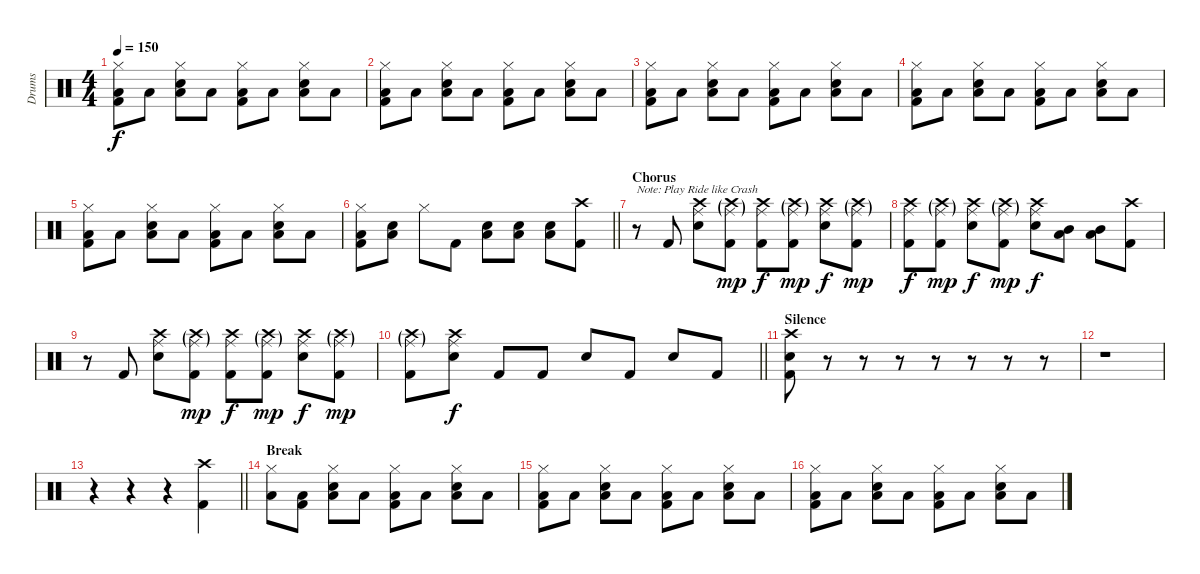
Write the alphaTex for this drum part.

\track ("Drums" "Drums") {instrument percussion}
\staff {score}
\articulation defaults
\ts (4 4)
\tempo 150
\clef neutral
\ks c
("Hi-Hat (closed)" "Low Tom (hit)" "Kick (hit) 2").8{dy f} "Low Tom (hit)".8 ("Hi-Hat (closed)" "Low Tom (hit)" "Electric Snare (hit)").8 "Low Tom (hit)".8 ("Hi-Hat (closed)" "Low Tom (hit)" "Kick (hit) 2").8 "Low Tom (hit)".8 ("Hi-Hat (closed)" "Low Tom (hit)" "Electric Snare (hit)").8 "Low Tom (hit)".8 |
("Hi-Hat (closed)" "Low Tom (hit)" "Kick (hit) 2").8 "Low Tom (hit)".8 ("Hi-Hat (closed)" "Low Tom (hit)" "Electric Snare (hit)").8 "Low Tom (hit)".8 ("Hi-Hat (closed)" "Low Tom (hit)" "Kick (hit) 2").8 "Low Tom (hit)".8 ("Hi-Hat (closed)" "Low Tom (hit)" "Electric Snare (hit)").8 "Low Tom (hit)".8 |
("Hi-Hat (closed)" "Low Tom (hit)" "Kick (hit) 2").8 "Low Tom (hit)".8 ("Hi-Hat (closed)" "Low Tom (hit)" "Electric Snare (hit)").8 "Low Tom (hit)".8 ("Hi-Hat (closed)" "Low Tom (hit)" "Kick (hit) 2").8 "Low Tom (hit)".8 ("Hi-Hat (closed)" "Low Tom (hit)" "Electric Snare (hit)").8 "Low Tom (hit)".8 |
("Hi-Hat (closed)" "Low Tom (hit)" "Kick (hit) 2").8 "Low Tom (hit)".8 ("Hi-Hat (closed)" "Low Tom (hit)" "Electric Snare (hit)").8 "Low Tom (hit)".8 ("Hi-Hat (closed)" "Low Tom (hit)" "Kick (hit) 2").8 "Low Tom (hit)".8 ("Hi-Hat (closed)" "Low Tom (hit)" "Electric Snare (hit)").8 "Low Tom (hit)".8 |
("Hi-Hat (closed)" "Low Tom (hit)" "Kick (hit) 2").8 "Low Tom (hit)".8 ("Hi-Hat (closed)" "Low Tom (hit)" "Electric Snare (hit)").8 "Low Tom (hit)".8 ("Hi-Hat (closed)" "Low Tom (hit)" "Kick (hit) 2").8 "Low Tom (hit)".8 ("Hi-Hat (closed)" "Low Tom (hit)" "Electric Snare (hit)").8 "Low Tom (hit)".8 |
\barLineRight lightlight
("Hi-Hat (closed)" "Low Tom (hit)" "Kick (hit) 2").8 ("Low Tom (hit)" "Electric Snare (hit)").8 "Hi-Hat (closed)".8 "Kick (hit) 2".8 ("Low Tom (hit)" "Electric Snare (hit)").8 ("Low Tom (hit)" "Electric Snare (hit)").8 ("Low Tom (hit)" "Electric Snare (hit)").8 ("Crash high (hit)" "Kick (hit) 2").8 |
\section ("" "Chorus")
r.8{txt "Note: Play Ride like Crash"} "Kick (hit) 2".8 ("Ride (middle)" "Crash high (hit)" "Electric Snare (hit)").8 ("Ride (middle)"{g} "Crash high (hit)"{g} "Kick (hit) 2").8{dy mp} ("Ride (middle)" "Crash high (hit)" "Kick (hit) 2").8{dy f} ("Ride (middle)"{g} "Crash high (hit)"{g} "Kick (hit) 2").8{dy mp} ("Ride (middle)" "Crash high (hit)" "Electric Snare (hit)").8{dy f} ("Ride (middle)"{g} "Crash high (hit)"{g} "Kick (hit) 2").8{dy mp} |
("Ride (middle)" "Crash high (hit)" "Kick (hit) 2").8{dy f} ("Ride (middle)"{g} "Crash high (hit)"{g} "Kick (hit) 2").8{dy mp} ("Ride (middle)" "Crash high (hit)" "Electric Snare (hit)").8{dy f} ("Ride (middle)"{g} "Crash high (hit)"{g} "Kick (hit) 2").8{dy mp} ("Ride (middle)" "Crash high (hit)" "Electric Snare (hit)").8{dy f} ("Low Tom (hit)" "Mid Tom (hit)").8 ("Low Tom (hit)" "Mid Tom (hit)").8 ("Crash high (hit)" "Kick (hit) 2").8 |
r.8 "Kick (hit) 2".8 ("Ride (middle)" "Crash high (hit)" "Electric Snare (hit)").8 ("Ride (middle)"{g} "Crash high (hit)"{g} "Kick (hit) 2").8{dy mp} ("Ride (middle)" "Crash high (hit)" "Kick (hit) 2").8{dy f} ("Ride (middle)"{g} "Crash high (hit)"{g} "Kick (hit) 2").8{dy mp} ("Ride (middle)" "Crash high (hit)" "Electric Snare (hit)").8{dy f} ("Ride (middle)"{g} "Crash high (hit)"{g} "Kick (hit) 2").8{dy mp} |
\barLineRight lightlight
("Ride (middle)"{g} "Crash high (hit)"{g} "Kick (hit) 2").8 ("Ride (middle)" "Crash high (hit)" "Electric Snare (hit)").8{dy f} "Kick (hit) 2".8 "Kick (hit) 2".8 "Electric Snare (hit)".8 "Kick (hit) 2".8 "Electric Snare (hit)".8 "Kick (hit) 2".8 |
\section ("" "Silence")
("Crash high (hit)" "Electric Snare (hit)" "Kick (hit) 2").8 r.8 r.8 r.8 r.8 r.8 r.8 r.8 |
r.1 |
\barLineRight lightlight
r.4 r.4 r.4 ("Crash high (hit)" "Kick (hit) 2").4 |
\section ("" "Break")
("Hi-Hat (closed)" "Low Tom (hit)").8 ("Low Tom (hit)" "Kick (hit) 2").8 ("Hi-Hat (closed)" "Low Tom (hit)" "Electric Snare (hit)").8 "Low Tom (hit)".8 ("Hi-Hat (closed)" "Low Tom (hit)" "Kick (hit) 2").8 "Low Tom (hit)".8 ("Hi-Hat (closed)" "Low Tom (hit)" "Electric Snare (hit)").8 "Low Tom (hit)".8 |
("Hi-Hat (closed)" "Low Tom (hit)" "Kick (hit) 2").8 "Low Tom (hit)".8 ("Hi-Hat (closed)" "Low Tom (hit)" "Electric Snare (hit)").8 "Low Tom (hit)".8 ("Hi-Hat (closed)" "Low Tom (hit)" "Kick (hit) 2").8 "Low Tom (hit)".8 ("Hi-Hat (closed)" "Low Tom (hit)" "Electric Snare (hit)").8 "Low Tom (hit)".8 |
("Hi-Hat (closed)" "Low Tom (hit)" "Kick (hit) 2").8 "Low Tom (hit)".8 ("Hi-Hat (closed)" "Low Tom (hit)" "Electric Snare (hit)").8 "Low Tom (hit)".8 ("Hi-Hat (closed)" "Low Tom (hit)" "Kick (hit) 2").8 "Low Tom (hit)".8 ("Hi-Hat (closed)" "Low Tom (hit)" "Electric Snare (hit)").8 "Low Tom (hit)".8
